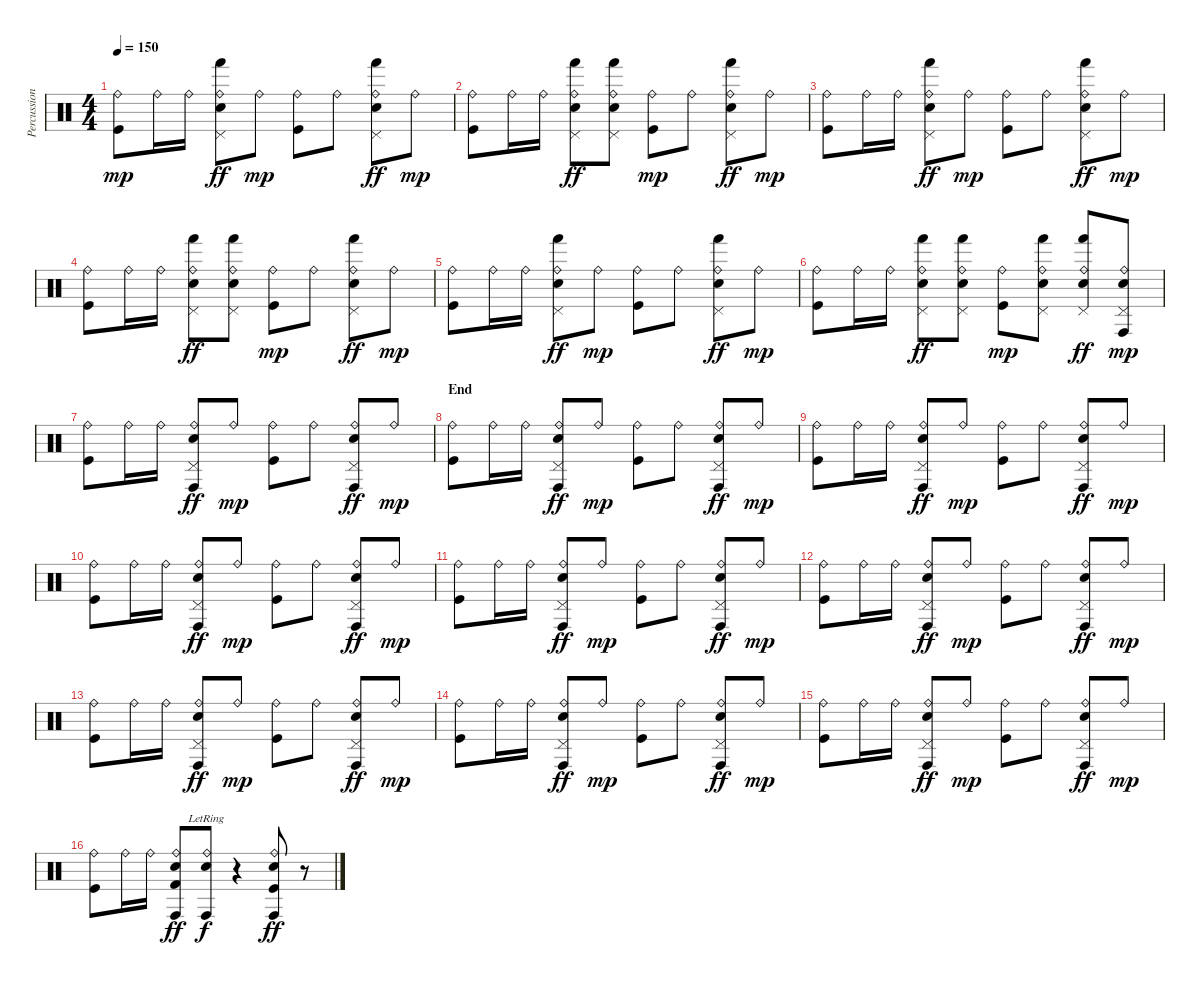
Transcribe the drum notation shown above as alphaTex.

\track ("Percussion" "Percussion") {instrument percussion}
\staff {score}
\articulation defaults
\ts (4 4)
\tempo 150
\clef neutral
\ks c
("Ride (bell)" "Kick (hit)").8{dy mp} "Ride (bell)".16 "Ride (bell)".16 ("Ride (bell)" "Pedal Hi-Hat (hit)" "Hand (hit)" "Electric Snare (hit)").8{dy ff} "Ride (bell)".8{dy mp} ("Ride (bell)" "Kick (hit)").8 "Ride (bell)".8 ("Ride (bell)" "Pedal Hi-Hat (hit)" "Hand (hit)" "Electric Snare (hit)").8{dy ff} "Ride (bell)".8{dy mp} |
("Ride (bell)" "Kick (hit)").8 "Ride (bell)".16 "Ride (bell)".16 ("Ride (bell)" "Pedal Hi-Hat (hit)" "Hand (hit)" "Electric Snare (hit)").8{dy ff} ("Ride (bell)" "Pedal Hi-Hat (hit)" "Hand (hit)" "Electric Snare (hit)").8 ("Ride (bell)" "Kick (hit)").8{dy mp} "Ride (bell)".8 ("Ride (bell)" "Pedal Hi-Hat (hit)" "Hand (hit)" "Electric Snare (hit)").8{dy ff} "Ride (bell)".8{dy mp} |
("Ride (bell)" "Kick (hit)").8 "Ride (bell)".16 "Ride (bell)".16 ("Ride (bell)" "Pedal Hi-Hat (hit)" "Hand (hit)" "Electric Snare (hit)").8{dy ff} "Ride (bell)".8{dy mp} ("Ride (bell)" "Kick (hit)").8 "Ride (bell)".8 ("Ride (bell)" "Pedal Hi-Hat (hit)" "Hand (hit)" "Electric Snare (hit)").8{dy ff} "Ride (bell)".8{dy mp} |
("Ride (bell)" "Kick (hit)").8 "Ride (bell)".16 "Ride (bell)".16 ("Ride (bell)" "Pedal Hi-Hat (hit)" "Hand (hit)" "Electric Snare (hit)").8{dy ff} ("Ride (bell)" "Pedal Hi-Hat (hit)" "Hand (hit)" "Electric Snare (hit)").8 ("Ride (bell)" "Kick (hit)").8{dy mp} "Ride (bell)".8 ("Ride (bell)" "Pedal Hi-Hat (hit)" "Hand (hit)" "Electric Snare (hit)").8{dy ff} "Ride (bell)".8{dy mp} |
("Ride (bell)" "Kick (hit)").8 "Ride (bell)".16 "Ride (bell)".16 ("Ride (bell)" "Pedal Hi-Hat (hit)" "Hand (hit)" "Electric Snare (hit)").8{dy ff} "Ride (bell)".8{dy mp} ("Ride (bell)" "Kick (hit)").8 "Ride (bell)".8 ("Ride (bell)" "Pedal Hi-Hat (hit)" "Hand (hit)" "Electric Snare (hit)").8{dy ff} "Ride (bell)".8{dy mp} |
("Ride (bell)" "Kick (hit)").8 "Ride (bell)".16 "Ride (bell)".16 ("Ride (bell)" "Pedal Hi-Hat (hit)" "Hand (hit)" "Electric Snare (hit)").8{dy ff} ("Ride (bell)" "Pedal Hi-Hat (hit)" "Hand (hit)" "Electric Snare (hit)").8 ("Ride (bell)" "Kick (hit)").8{dy mp} ("Ride (bell)" "Pedal Hi-Hat (hit)" "Hand (hit)" "Electric Snare (hit)").8 ("Ride (bell)" "Pedal Hi-Hat (hit)" "Hand (hit)" "Electric Snare (hit)").8{dy ff} ("Ride (bell)" "Pedal Hi-Hat (hit)" "Conga high (hit)" "Electric Snare (hit)").8{dy mp} |
("Ride (bell)" "Kick (hit)").8 "Ride (bell)".16 "Ride (bell)".16 ("Ride (bell)" "Pedal Hi-Hat (hit)" "Conga high (hit)" "Electric Snare (hit)").8{dy ff} "Ride (bell)".8{dy mp} ("Ride (bell)" "Kick (hit)").8 "Ride (bell)".8 ("Ride (bell)" "Pedal Hi-Hat (hit)" "Conga high (hit)" "Electric Snare (hit)").8{dy ff} "Ride (bell)".8{dy mp} |
\section ("" "End")
("Ride (bell)" "Kick (hit)").8 "Ride (bell)".16 "Ride (bell)".16 ("Ride (bell)" "Pedal Hi-Hat (hit)" "Conga high (hit)" "Electric Snare (hit)").8{dy ff} "Ride (bell)".8{dy mp} ("Ride (bell)" "Kick (hit)").8 "Ride (bell)".8 ("Ride (bell)" "Pedal Hi-Hat (hit)" "Conga high (hit)" "Electric Snare (hit)").8{dy ff} "Ride (bell)".8{dy mp} |
("Ride (bell)" "Kick (hit)").8 "Ride (bell)".16 "Ride (bell)".16 ("Ride (bell)" "Pedal Hi-Hat (hit)" "Conga high (hit)" "Electric Snare (hit)").8{dy ff} "Ride (bell)".8{dy mp} ("Ride (bell)" "Kick (hit)").8 "Ride (bell)".8 ("Ride (bell)" "Pedal Hi-Hat (hit)" "Conga high (hit)" "Electric Snare (hit)").8{dy ff} "Ride (bell)".8{dy mp} |
("Ride (bell)" "Kick (hit)").8 "Ride (bell)".16 "Ride (bell)".16 ("Ride (bell)" "Pedal Hi-Hat (hit)" "Conga high (hit)" "Electric Snare (hit)").8{dy ff} "Ride (bell)".8{dy mp} ("Ride (bell)" "Kick (hit)").8 "Ride (bell)".8 ("Ride (bell)" "Pedal Hi-Hat (hit)" "Conga high (hit)" "Electric Snare (hit)").8{dy ff} "Ride (bell)".8{dy mp} |
("Ride (bell)" "Kick (hit)").8 "Ride (bell)".16 "Ride (bell)".16 ("Ride (bell)" "Pedal Hi-Hat (hit)" "Conga high (hit)" "Electric Snare (hit)").8{dy ff} "Ride (bell)".8{dy mp} ("Ride (bell)" "Kick (hit)").8 "Ride (bell)".8 ("Ride (bell)" "Pedal Hi-Hat (hit)" "Conga high (hit)" "Electric Snare (hit)").8{dy ff} "Ride (bell)".8{dy mp} |
("Ride (bell)" "Kick (hit)").8 "Ride (bell)".16 "Ride (bell)".16 ("Ride (bell)" "Pedal Hi-Hat (hit)" "Conga high (hit)" "Electric Snare (hit)").8{dy ff} "Ride (bell)".8{dy mp} ("Ride (bell)" "Kick (hit)").8 "Ride (bell)".8 ("Ride (bell)" "Pedal Hi-Hat (hit)" "Conga high (hit)" "Electric Snare (hit)").8{dy ff} "Ride (bell)".8{dy mp} |
("Ride (bell)" "Kick (hit)").8 "Ride (bell)".16 "Ride (bell)".16 ("Ride (bell)" "Pedal Hi-Hat (hit)" "Conga high (hit)" "Electric Snare (hit)").8{dy ff} "Ride (bell)".8{dy mp} ("Ride (bell)" "Kick (hit)").8 "Ride (bell)".8 ("Ride (bell)" "Pedal Hi-Hat (hit)" "Conga high (hit)" "Electric Snare (hit)").8{dy ff} "Ride (bell)".8{dy mp} |
("Ride (bell)" "Kick (hit)").8 "Ride (bell)".16 "Ride (bell)".16 ("Ride (bell)" "Pedal Hi-Hat (hit)" "Conga high (hit)" "Electric Snare (hit)").8{dy ff} "Ride (bell)".8{dy mp} ("Ride (bell)" "Kick (hit)").8 "Ride (bell)".8 ("Ride (bell)" "Pedal Hi-Hat (hit)" "Conga high (hit)" "Electric Snare (hit)").8{dy ff} "Ride (bell)".8{dy mp} |
("Ride (bell)" "Kick (hit)").8 "Ride (bell)".16 "Ride (bell)".16 ("Ride (bell)" "Pedal Hi-Hat (hit)" "Conga high (hit)" "Electric Snare (hit)").8{dy ff} "Ride (bell)".8{dy mp} ("Ride (bell)" "Kick (hit)").8 "Ride (bell)".8 ("Ride (bell)" "Pedal Hi-Hat (hit)" "Conga high (hit)" "Electric Snare (hit)").8{dy ff} "Ride (bell)".8{dy mp} |
("Ride (bell)" "Kick (hit)").8 "Ride (bell)".16 "Ride (bell)".16 ("Ride (bell)" "Conga high (hit)" "Electric Snare (hit)" "Kick (hit) 2").8{dy ff} ("Ride (bell)"{lr} "Conga high (hit)" "Electric Snare (hit)").8{dy f} r.4 ("Ride (bell)" "Conga high (hit)" "Electric Snare (hit)" "Kick (hit)").8{dy ff} r.8
